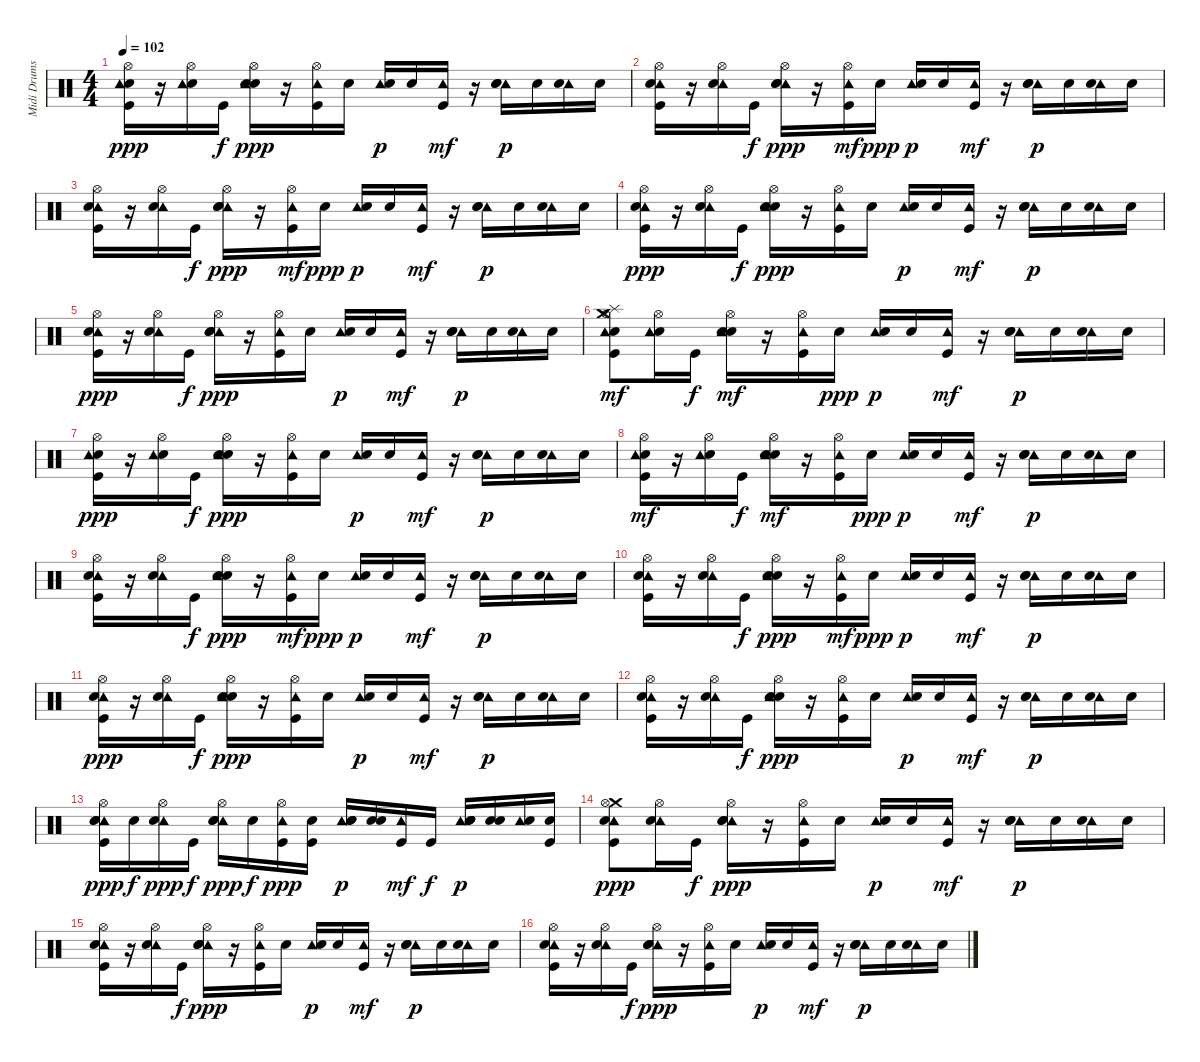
\track ("Midi Drums" "Midi Drums") {instrument percussion}
\staff {score}
\articulation defaults
\ts (4 4)
\tempo 102
\clef neutral
\ks c
("Electric Snare (hit)" "Kick (hit)" "Tambourine (hit)" "Hi-Hat (open)").16{dy ppp} r.16 ("Electric Snare (hit)" "Tambourine (hit)" "Hi-Hat (open)").16 "Kick (hit)".16{dy f} ("Electric Snare (hit)" "Snare (hit) 2" "Tambourine (hit)" "Hi-Hat (open)").16{dy ppp} r.16 ("Kick (hit)" "Tambourine (hit)" "Hi-Hat (open)").16 "Electric Snare (hit)".16 ("Tambourine (hit)" "Electric Snare (hit)").16{dy p} "Electric Snare (hit)".16 ("Kick (hit)" "Tambourine (hit)").16{dy mf} r.16 ("Tambourine (hit)" "Electric Snare (hit)" "Snare (hit) 2").16{dy p} "Electric Snare (hit)".16 ("Tambourine (hit)" "Electric Snare (hit)").16 "Electric Snare (hit)".16 |
("Hi-Hat (open)" "Tambourine (hit)" "Electric Snare (hit)" "Kick (hit)").16 r.16 ("Hi-Hat (open)" "Tambourine (hit)" "Electric Snare (hit)").16 "Kick (hit)".16{dy f} ("Hi-Hat (open)" "Tambourine (hit)" "Electric Snare (hit)" "Snare (hit) 2").16{dy ppp} r.16 ("Hi-Hat (open)" "Tambourine (hit)" "Kick (hit)").16{dy mf} "Electric Snare (hit)".16{dy ppp} ("Tambourine (hit)" "Electric Snare (hit)").16{dy p} "Electric Snare (hit)".16 ("Tambourine (hit)" "Kick (hit)").16{dy mf} r.16 ("Tambourine (hit)" "Electric Snare (hit)" "Snare (hit) 2").16{dy p} "Electric Snare (hit)".16 ("Tambourine (hit)" "Electric Snare (hit)").16 "Electric Snare (hit)".16 |
("Hi-Hat (open)" "Tambourine (hit)" "Kick (hit)" "Electric Snare (hit)").16 r.16 ("Hi-Hat (open)" "Tambourine (hit)" "Electric Snare (hit)").16 "Kick (hit)".16{dy f} ("Hi-Hat (open)" "Tambourine (hit)" "Snare (hit) 2" "Electric Snare (hit)").16{dy ppp} r.16 ("Hi-Hat (open)" "Tambourine (hit)" "Kick (hit)").16{dy mf} "Electric Snare (hit)".16{dy ppp} ("Tambourine (hit)" "Electric Snare (hit)").16{dy p} "Electric Snare (hit)".16 ("Tambourine (hit)" "Kick (hit)").16{dy mf} r.16 ("Tambourine (hit)" "Electric Snare (hit)" "Snare (hit) 2").16{dy p} "Electric Snare (hit)".16 ("Tambourine (hit)" "Electric Snare (hit)").16 "Electric Snare (hit)".16 |
("Kick (hit)" "Tambourine (hit)" "Electric Snare (hit)" "Hi-Hat (open)").16{dy ppp} r.16 ("Tambourine (hit)" "Electric Snare (hit)" "Hi-Hat (open)").16 "Kick (hit)".16{dy f} ("Snare (hit) 2" "Tambourine (hit)" "Electric Snare (hit)" "Hi-Hat (open)").16{dy ppp} r.16 ("Kick (hit)" "Tambourine (hit)" "Hi-Hat (open)").16 "Electric Snare (hit)".16 ("Tambourine (hit)" "Electric Snare (hit)").16{dy p} "Electric Snare (hit)".16 ("Kick (hit)" "Tambourine (hit)").16{dy mf} r.16 ("Tambourine (hit)" "Electric Snare (hit)" "Snare (hit) 2").16{dy p} "Electric Snare (hit)".16 ("Tambourine (hit)" "Electric Snare (hit)").16 "Electric Snare (hit)".16 |
("Tambourine (hit)" "Kick (hit)" "Electric Snare (hit)" "Hi-Hat (open)").16{dy ppp} r.16 ("Tambourine (hit)" "Electric Snare (hit)" "Hi-Hat (open)").16 "Kick (hit)".16{dy f} ("Tambourine (hit)" "Snare (hit) 2" "Electric Snare (hit)" "Hi-Hat (open)").16{dy ppp} r.16 ("Tambourine (hit)" "Kick (hit)" "Hi-Hat (open)").16 "Electric Snare (hit)".16 ("Tambourine (hit)" "Electric Snare (hit)").16{dy p} "Electric Snare (hit)".16 ("Tambourine (hit)" "Kick (hit)").16{dy mf} r.16 ("Tambourine (hit)" "Electric Snare (hit)" "Snare (hit) 2").16{dy p} "Electric Snare (hit)".16 ("Tambourine (hit)" "Electric Snare (hit)").16 "Electric Snare (hit)".16 |
("Splash (hit)" "Crash medium (hit)" "Kick (hit)" "Hi-Hat (open)" "Electric Snare (hit)" "Tambourine (hit)").8{dy mf} ("Hi-Hat (open)" "Electric Snare (hit)" "Tambourine (hit)").16 "Kick (hit)".16{dy f} ("Snare (hit) 2" "Hi-Hat (open)" "Electric Snare (hit)" "Tambourine (hit)").16{dy mf} r.16 ("Kick (hit)" "Hi-Hat (open)" "Tambourine (hit)").16 "Electric Snare (hit)".16{dy ppp} ("Tambourine (hit)" "Electric Snare (hit)").16{dy p} "Electric Snare (hit)".16 ("Kick (hit)" "Tambourine (hit)").16{dy mf} r.16 ("Tambourine (hit)" "Electric Snare (hit)" "Snare (hit) 2").16{dy p} "Electric Snare (hit)".16 ("Tambourine (hit)" "Electric Snare (hit)").16 "Electric Snare (hit)".16 |
("Kick (hit)" "Electric Snare (hit)" "Tambourine (hit)" "Hi-Hat (open)").16{dy ppp} r.16 ("Electric Snare (hit)" "Tambourine (hit)" "Hi-Hat (open)").16 "Kick (hit)".16{dy f} ("Snare (hit) 2" "Electric Snare (hit)" "Tambourine (hit)" "Hi-Hat (open)").16{dy ppp} r.16 ("Kick (hit)" "Tambourine (hit)" "Hi-Hat (open)").16 "Electric Snare (hit)".16 ("Tambourine (hit)" "Electric Snare (hit)").16{dy p} "Electric Snare (hit)".16 ("Kick (hit)" "Tambourine (hit)").16{dy mf} r.16 ("Tambourine (hit)" "Electric Snare (hit)" "Snare (hit) 2").16{dy p} "Electric Snare (hit)".16 ("Tambourine (hit)" "Electric Snare (hit)").16 "Electric Snare (hit)".16 |
("Kick (hit)" "Hi-Hat (open)" "Electric Snare (hit)" "Tambourine (hit)").16{dy mf} r.16 ("Hi-Hat (open)" "Electric Snare (hit)" "Tambourine (hit)").16 "Kick (hit)".16{dy f} ("Snare (hit) 2" "Hi-Hat (open)" "Electric Snare (hit)" "Tambourine (hit)").16{dy mf} r.16 ("Kick (hit)" "Hi-Hat (open)" "Tambourine (hit)").16 "Electric Snare (hit)".16{dy ppp} ("Tambourine (hit)" "Electric Snare (hit)").16{dy p} "Electric Snare (hit)".16 ("Kick (hit)" "Tambourine (hit)").16{dy mf} r.16 ("Tambourine (hit)" "Electric Snare (hit)" "Snare (hit) 2").16{dy p} "Electric Snare (hit)".16 ("Tambourine (hit)" "Electric Snare (hit)").16 "Electric Snare (hit)".16 |
("Hi-Hat (open)" "Kick (hit)" "Tambourine (hit)" "Electric Snare (hit)").16 r.16 ("Hi-Hat (open)" "Tambourine (hit)" "Electric Snare (hit)").16 "Kick (hit)".16{dy f} ("Hi-Hat (open)" "Snare (hit) 2" "Tambourine (hit)" "Electric Snare (hit)").16{dy ppp} r.16 ("Hi-Hat (open)" "Kick (hit)" "Tambourine (hit)").16{dy mf} "Electric Snare (hit)".16{dy ppp} ("Tambourine (hit)" "Electric Snare (hit)").16{dy p} "Electric Snare (hit)".16 ("Kick (hit)" "Tambourine (hit)").16{dy mf} r.16 ("Tambourine (hit)" "Electric Snare (hit)" "Snare (hit) 2").16{dy p} "Electric Snare (hit)".16 ("Tambourine (hit)" "Electric Snare (hit)").16 "Electric Snare (hit)".16 |
("Kick (hit)" "Hi-Hat (open)" "Tambourine (hit)" "Electric Snare (hit)").16 r.16 ("Hi-Hat (open)" "Tambourine (hit)" "Electric Snare (hit)").16 "Kick (hit)".16{dy f} ("Snare (hit) 2" "Hi-Hat (open)" "Tambourine (hit)" "Electric Snare (hit)").16{dy ppp} r.16 ("Kick (hit)" "Hi-Hat (open)" "Tambourine (hit)").16{dy mf} "Electric Snare (hit)".16{dy ppp} ("Tambourine (hit)" "Electric Snare (hit)").16{dy p} "Electric Snare (hit)".16 ("Kick (hit)" "Tambourine (hit)").16{dy mf} r.16 ("Tambourine (hit)" "Electric Snare (hit)" "Snare (hit) 2").16{dy p} "Electric Snare (hit)".16 ("Tambourine (hit)" "Electric Snare (hit)").16 "Electric Snare (hit)".16 |
("Kick (hit)" "Tambourine (hit)" "Electric Snare (hit)" "Hi-Hat (open)").16{dy ppp} r.16 ("Tambourine (hit)" "Electric Snare (hit)" "Hi-Hat (open)").16 "Kick (hit)".16{dy f} ("Snare (hit) 2" "Tambourine (hit)" "Electric Snare (hit)" "Hi-Hat (open)").16{dy ppp} r.16 ("Kick (hit)" "Tambourine (hit)" "Hi-Hat (open)").16 "Electric Snare (hit)".16 ("Tambourine (hit)" "Electric Snare (hit)").16{dy p} "Electric Snare (hit)".16 ("Kick (hit)" "Tambourine (hit)").16{dy mf} r.16 ("Tambourine (hit)" "Electric Snare (hit)" "Snare (hit) 2").16{dy p} "Electric Snare (hit)".16 ("Tambourine (hit)" "Electric Snare (hit)").16 "Electric Snare (hit)".16 |
("Kick (hit)" "Tambourine (hit)" "Hi-Hat (open)" "Electric Snare (hit)").16 r.16 ("Tambourine (hit)" "Hi-Hat (open)" "Electric Snare (hit)").16 "Kick (hit)".16{dy f} ("Snare (hit) 2" "Tambourine (hit)" "Hi-Hat (open)" "Electric Snare (hit)").16{dy ppp} r.16 ("Kick (hit)" "Tambourine (hit)" "Hi-Hat (open)").16 "Electric Snare (hit)".16 ("Tambourine (hit)" "Electric Snare (hit)").16{dy p} "Electric Snare (hit)".16 ("Kick (hit)" "Tambourine (hit)").16{dy mf} r.16 ("Tambourine (hit)" "Electric Snare (hit)" "Snare (hit) 2").16{dy p} "Electric Snare (hit)".16 ("Tambourine (hit)" "Electric Snare (hit)").16 "Electric Snare (hit)".16 |
("Tambourine (hit)" "Kick (hit)" "Electric Snare (hit)" "Hi-Hat (open)" "Snare (hit) 2").16{dy ppp} "Snare (hit) 2".16{dy f} ("Tambourine (hit)" "Electric Snare (hit)" "Hi-Hat (open)").16{dy ppp} "Kick (hit)".16{dy f} ("Tambourine (hit)" "Snare (hit) 2" "Electric Snare (hit)" "Hi-Hat (open)").16{dy ppp} "Snare (hit) 2".16{dy f} ("Tambourine (hit)" "Kick (hit)" "Hi-Hat (open)").16{dy ppp} ("Kick (hit)" "Electric Snare (hit)").16 ("Tambourine (hit)" "Snare (hit) 2" "Electric Snare (hit)").16{dy p} ("Snare (hit) 2" "Electric Snare (hit)").16 ("Tambourine (hit)" "Kick (hit)").16{dy mf} "Kick (hit)".16{dy f} ("Tambourine (hit)" "Snare (hit) 2" "Electric Snare (hit)" "Snare (hit) 2").16{dy p} ("Snare (hit) 2" "Electric Snare (hit)").16 ("Tambourine (hit)" "Electric Snare (hit)").16 ("Kick (hit)" "Electric Snare (hit)").16 |
("Crash medium (hit)" "Tambourine (hit)" "Kick (hit)" "Electric Snare (hit)" "Hi-Hat (open)").8{dy ppp} ("Tambourine (hit)" "Electric Snare (hit)" "Hi-Hat (open)").16 "Kick (hit)".16{dy f} ("Tambourine (hit)" "Snare (hit) 2" "Electric Snare (hit)" "Hi-Hat (open)").16{dy ppp} r.16 ("Tambourine (hit)" "Kick (hit)" "Hi-Hat (open)").16 "Electric Snare (hit)".16 ("Tambourine (hit)" "Electric Snare (hit)").16{dy p} "Electric Snare (hit)".16 ("Tambourine (hit)" "Kick (hit)").16{dy mf} r.16 ("Tambourine (hit)" "Electric Snare (hit)" "Snare (hit) 2").16{dy p} "Electric Snare (hit)".16 ("Tambourine (hit)" "Electric Snare (hit)").16 "Electric Snare (hit)".16 |
("Tambourine (hit)" "Hi-Hat (open)" "Electric Snare (hit)" "Kick (hit)").16 r.16 ("Tambourine (hit)" "Hi-Hat (open)" "Electric Snare (hit)").16 "Kick (hit)".16{dy f} ("Tambourine (hit)" "Hi-Hat (open)" "Electric Snare (hit)" "Snare (hit) 2").16{dy ppp} r.16 ("Tambourine (hit)" "Hi-Hat (open)" "Kick (hit)").16 "Electric Snare (hit)".16 ("Tambourine (hit)" "Electric Snare (hit)").16{dy p} "Electric Snare (hit)".16 ("Tambourine (hit)" "Kick (hit)").16{dy mf} r.16 ("Tambourine (hit)" "Electric Snare (hit)" "Snare (hit) 2").16{dy p} "Electric Snare (hit)".16 ("Tambourine (hit)" "Electric Snare (hit)").16 "Electric Snare (hit)".16 |
("Tambourine (hit)" "Hi-Hat (open)" "Electric Snare (hit)" "Kick (hit)").16 r.16 ("Tambourine (hit)" "Hi-Hat (open)" "Electric Snare (hit)").16 "Kick (hit)".16{dy f} ("Tambourine (hit)" "Hi-Hat (open)" "Electric Snare (hit)" "Snare (hit) 2").16{dy ppp} r.16 ("Tambourine (hit)" "Hi-Hat (open)" "Kick (hit)").16 "Electric Snare (hit)".16 ("Tambourine (hit)" "Electric Snare (hit)").16{dy p} "Electric Snare (hit)".16 ("Tambourine (hit)" "Kick (hit)").16{dy mf} r.16 ("Tambourine (hit)" "Electric Snare (hit)" "Snare (hit) 2").16{dy p} "Electric Snare (hit)".16 ("Tambourine (hit)" "Electric Snare (hit)").16 "Electric Snare (hit)".16
